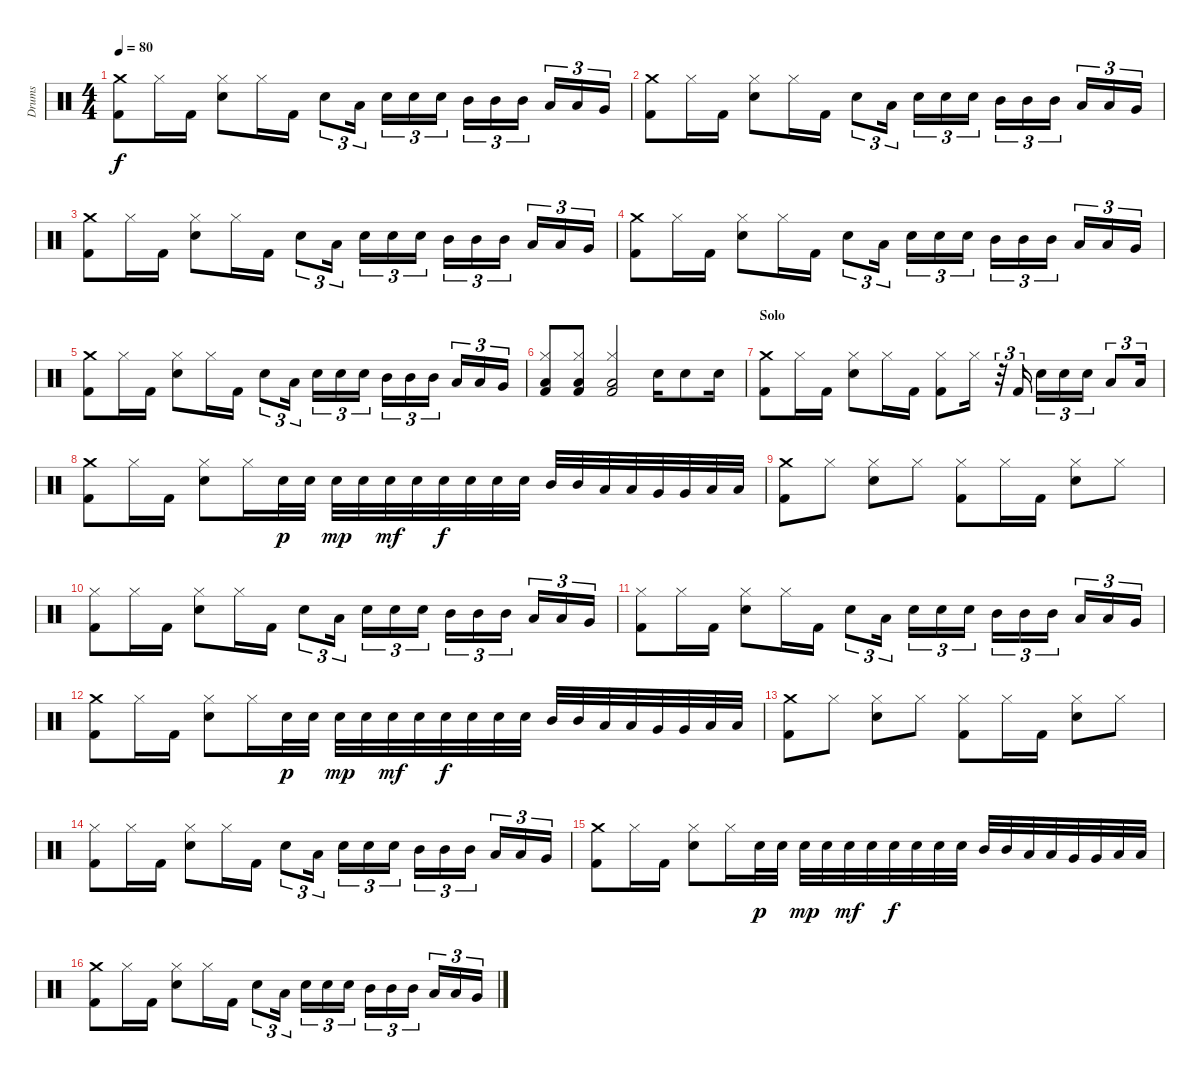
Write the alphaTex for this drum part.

\track ("Drums" "Drums") {instrument percussion}
\staff {score}
\articulation defaults
\ts (4 4)
\tempo 80
\clef neutral
\ks c
("Crash medium (hit)" "Kick (hit) 2").8{dy f} "Hi-Hat (closed)".16 "Kick (hit) 2".16 ("Hi-Hat (closed)" "Electric Snare (hit)").8 "Hi-Hat (closed)".16 "Kick (hit) 2".16 "Electric Snare (hit)".8{tu (3 2)} "Low Tom (hit)".16{tu (3 2)} "Electric Snare (hit)".16{tu (3 2)} "Electric Snare (hit)".16{tu (3 2)} "Electric Snare (hit)".16{tu (3 2)} "Mid Tom (hit)".16{tu (3 2)} "Mid Tom (hit)".16{tu (3 2)} "Mid Tom (hit)".16{tu (3 2)} "Low Tom (hit)".16{tu (3 2)} "Low Tom (hit)".16{tu (3 2)} "Very Low Tom (hit)".16{tu (3 2)} |
("Crash medium (hit)" "Kick (hit) 2").8 "Hi-Hat (closed)".16 "Kick (hit) 2".16 ("Hi-Hat (closed)" "Electric Snare (hit)").8 "Hi-Hat (closed)".16 "Kick (hit) 2".16 "Electric Snare (hit)".8{tu (3 2)} "Low Tom (hit)".16{tu (3 2)} "Electric Snare (hit)".16{tu (3 2)} "Electric Snare (hit)".16{tu (3 2)} "Electric Snare (hit)".16{tu (3 2)} "Mid Tom (hit)".16{tu (3 2)} "Mid Tom (hit)".16{tu (3 2)} "Mid Tom (hit)".16{tu (3 2)} "Low Tom (hit)".16{tu (3 2)} "Low Tom (hit)".16{tu (3 2)} "Very Low Tom (hit)".16{tu (3 2)} |
("Crash medium (hit)" "Kick (hit) 2").8 "Hi-Hat (closed)".16 "Kick (hit) 2".16 ("Hi-Hat (closed)" "Electric Snare (hit)").8 "Hi-Hat (closed)".16 "Kick (hit) 2".16 "Electric Snare (hit)".8{tu (3 2)} "Low Tom (hit)".16{tu (3 2)} "Electric Snare (hit)".16{tu (3 2)} "Electric Snare (hit)".16{tu (3 2)} "Electric Snare (hit)".16{tu (3 2)} "Mid Tom (hit)".16{tu (3 2)} "Mid Tom (hit)".16{tu (3 2)} "Mid Tom (hit)".16{tu (3 2)} "Low Tom (hit)".16{tu (3 2)} "Low Tom (hit)".16{tu (3 2)} "Very Low Tom (hit)".16{tu (3 2)} |
("Crash medium (hit)" "Kick (hit) 2").8 "Hi-Hat (closed)".16 "Kick (hit) 2".16 ("Hi-Hat (closed)" "Electric Snare (hit)").8 "Hi-Hat (closed)".16 "Kick (hit) 2".16 "Electric Snare (hit)".8{tu (3 2)} "Low Tom (hit)".16{tu (3 2)} "Electric Snare (hit)".16{tu (3 2)} "Electric Snare (hit)".16{tu (3 2)} "Electric Snare (hit)".16{tu (3 2)} "Mid Tom (hit)".16{tu (3 2)} "Mid Tom (hit)".16{tu (3 2)} "Mid Tom (hit)".16{tu (3 2)} "Low Tom (hit)".16{tu (3 2)} "Low Tom (hit)".16{tu (3 2)} "Very Low Tom (hit)".16{tu (3 2)} |
("Crash medium (hit)" "Kick (hit) 2").8 "Hi-Hat (closed)".16 "Kick (hit) 2".16 ("Hi-Hat (closed)" "Electric Snare (hit)").8 "Hi-Hat (closed)".16 "Kick (hit) 2".16 "Electric Snare (hit)".8{tu (3 2)} "Low Tom (hit)".16{tu (3 2)} "Electric Snare (hit)".16{tu (3 2)} "Electric Snare (hit)".16{tu (3 2)} "Electric Snare (hit)".16{tu (3 2)} "Mid Tom (hit)".16{tu (3 2)} "Mid Tom (hit)".16{tu (3 2)} "Mid Tom (hit)".16{tu (3 2)} "Low Tom (hit)".16{tu (3 2)} "Low Tom (hit)".16{tu (3 2)} "Very Low Tom (hit)".16{tu (3 2)} |
("Hi-Hat (closed)" "Low Tom (hit)" "Kick (hit) 2").8 ("Hi-Hat (closed)" "Low Tom (hit)" "Kick (hit) 2").8 ("Hi-Hat (closed)" "Low Tom (hit)" "Kick (hit) 2").2 "Electric Snare (hit)".16 "Electric Snare (hit)".8 "Electric Snare (hit)".16 |
\section ("" "Solo")
("Crash medium (hit)" "Kick (hit) 2").8 "Hi-Hat (closed)".16 "Kick (hit) 2".16 ("Hi-Hat (closed)" "Electric Snare (hit)").8 "Hi-Hat (closed)".16 "Kick (hit) 2".16 ("Hi-Hat (closed)" "Kick (hit) 2").8 "Hi-Hat (closed)".16 r.32{tu (3 2)} "Kick (hit) 2".16{tu (3 2)} "Electric Snare (hit)".16{tu (3 2)} "Electric Snare (hit)".16{tu (3 2)} "Electric Snare (hit)".16{tu (3 2)} "Low Tom (hit)".8{tu (3 2)} "Low Tom (hit)".16{tu (3 2)} |
("Crash medium (hit)" "Kick (hit) 2").8 "Hi-Hat (closed)".16 "Kick (hit) 2".16 ("Hi-Hat (closed)" "Electric Snare (hit)").8 "Hi-Hat (closed)".16 "Electric Snare (hit)".32{dy p} "Electric Snare (hit)".32 "Electric Snare (hit)".32{dy mp} "Electric Snare (hit)".32 "Electric Snare (hit)".32{dy mf} "Electric Snare (hit)".32 "Electric Snare (hit)".32{dy f} "Electric Snare (hit)".32 "Electric Snare (hit)".32 "Electric Snare (hit)".32 "Mid Tom (hit)".32 "Mid Tom (hit)".32 "Low Tom (hit)".32 "Low Tom (hit)".32 "Very Low Tom (hit)".32 "Very Low Tom (hit)".32 "Low Floor Tom (hit)".32 "Low Floor Tom (hit)".32 |
("Crash medium (hit)" "Kick (hit) 2").8 "Hi-Hat (closed)".8 ("Hi-Hat (closed)" "Electric Snare (hit)").8 "Hi-Hat (closed)".8 ("Hi-Hat (closed)" "Kick (hit) 2").8 "Hi-Hat (closed)".16 "Kick (hit) 2".16 ("Hi-Hat (closed)" "Electric Snare (hit)").8 "Hi-Hat (closed)".8 |
("Hi-Hat (closed)" "Kick (hit) 2").8 "Hi-Hat (closed)".16 "Kick (hit) 2".16 ("Hi-Hat (closed)" "Electric Snare (hit)").8 "Hi-Hat (closed)".16 "Kick (hit) 2".16 "Electric Snare (hit)".8{tu (3 2)} "Low Tom (hit)".16{tu (3 2)} "Electric Snare (hit)".16{tu (3 2)} "Electric Snare (hit)".16{tu (3 2)} "Electric Snare (hit)".16{tu (3 2)} "Mid Tom (hit)".16{tu (3 2)} "Mid Tom (hit)".16{tu (3 2)} "Mid Tom (hit)".16{tu (3 2)} "Low Tom (hit)".16{tu (3 2)} "Low Tom (hit)".16{tu (3 2)} "Very Low Tom (hit)".16{tu (3 2)} |
("Hi-Hat (closed)" "Kick (hit) 2").8 "Hi-Hat (closed)".16 "Kick (hit) 2".16 ("Hi-Hat (closed)" "Electric Snare (hit)").8 "Hi-Hat (closed)".16 "Kick (hit) 2".16 "Electric Snare (hit)".8{tu (3 2)} "Low Tom (hit)".16{tu (3 2)} "Electric Snare (hit)".16{tu (3 2)} "Electric Snare (hit)".16{tu (3 2)} "Electric Snare (hit)".16{tu (3 2)} "Mid Tom (hit)".16{tu (3 2)} "Mid Tom (hit)".16{tu (3 2)} "Mid Tom (hit)".16{tu (3 2)} "Low Tom (hit)".16{tu (3 2)} "Low Tom (hit)".16{tu (3 2)} "Very Low Tom (hit)".16{tu (3 2)} |
("Crash medium (hit)" "Kick (hit) 2").8 "Hi-Hat (closed)".16 "Kick (hit) 2".16 ("Hi-Hat (closed)" "Electric Snare (hit)").8 "Hi-Hat (closed)".16 "Electric Snare (hit)".32{dy p} "Electric Snare (hit)".32 "Electric Snare (hit)".32{dy mp} "Electric Snare (hit)".32 "Electric Snare (hit)".32{dy mf} "Electric Snare (hit)".32 "Electric Snare (hit)".32{dy f} "Electric Snare (hit)".32 "Electric Snare (hit)".32 "Electric Snare (hit)".32 "Mid Tom (hit)".32 "Mid Tom (hit)".32 "Low Tom (hit)".32 "Low Tom (hit)".32 "Very Low Tom (hit)".32 "Very Low Tom (hit)".32 "Low Floor Tom (hit)".32 "Low Floor Tom (hit)".32 |
("Crash medium (hit)" "Kick (hit) 2").8 "Hi-Hat (closed)".8 ("Hi-Hat (closed)" "Electric Snare (hit)").8 "Hi-Hat (closed)".8 ("Hi-Hat (closed)" "Kick (hit) 2").8 "Hi-Hat (closed)".16 "Kick (hit) 2".16 ("Hi-Hat (closed)" "Electric Snare (hit)").8 "Hi-Hat (closed)".8 |
("Hi-Hat (closed)" "Kick (hit) 2").8 "Hi-Hat (closed)".16 "Kick (hit) 2".16 ("Hi-Hat (closed)" "Electric Snare (hit)").8 "Hi-Hat (closed)".16 "Kick (hit) 2".16 "Electric Snare (hit)".8{tu (3 2)} "Low Tom (hit)".16{tu (3 2)} "Electric Snare (hit)".16{tu (3 2)} "Electric Snare (hit)".16{tu (3 2)} "Electric Snare (hit)".16{tu (3 2)} "Mid Tom (hit)".16{tu (3 2)} "Mid Tom (hit)".16{tu (3 2)} "Mid Tom (hit)".16{tu (3 2)} "Low Tom (hit)".16{tu (3 2)} "Low Tom (hit)".16{tu (3 2)} "Very Low Tom (hit)".16{tu (3 2)} |
("Crash medium (hit)" "Kick (hit) 2").8 "Hi-Hat (closed)".16 "Kick (hit) 2".16 ("Hi-Hat (closed)" "Electric Snare (hit)").8 "Hi-Hat (closed)".16 "Electric Snare (hit)".32{dy p} "Electric Snare (hit)".32 "Electric Snare (hit)".32{dy mp} "Electric Snare (hit)".32 "Electric Snare (hit)".32{dy mf} "Electric Snare (hit)".32 "Electric Snare (hit)".32{dy f} "Electric Snare (hit)".32 "Electric Snare (hit)".32 "Electric Snare (hit)".32 "Mid Tom (hit)".32 "Mid Tom (hit)".32 "Low Tom (hit)".32 "Low Tom (hit)".32 "Very Low Tom (hit)".32 "Very Low Tom (hit)".32 "Low Floor Tom (hit)".32 "Low Floor Tom (hit)".32 |
("Crash medium (hit)" "Kick (hit) 2").8 "Hi-Hat (closed)".16 "Kick (hit) 2".16 ("Hi-Hat (closed)" "Electric Snare (hit)").8 "Hi-Hat (closed)".16 "Kick (hit) 2".16 "Electric Snare (hit)".8{tu (3 2)} "Low Tom (hit)".16{tu (3 2)} "Electric Snare (hit)".16{tu (3 2)} "Electric Snare (hit)".16{tu (3 2)} "Electric Snare (hit)".16{tu (3 2)} "Mid Tom (hit)".16{tu (3 2)} "Mid Tom (hit)".16{tu (3 2)} "Mid Tom (hit)".16{tu (3 2)} "Low Tom (hit)".16{tu (3 2)} "Low Tom (hit)".16{tu (3 2)} "Very Low Tom (hit)".16{tu (3 2)}
